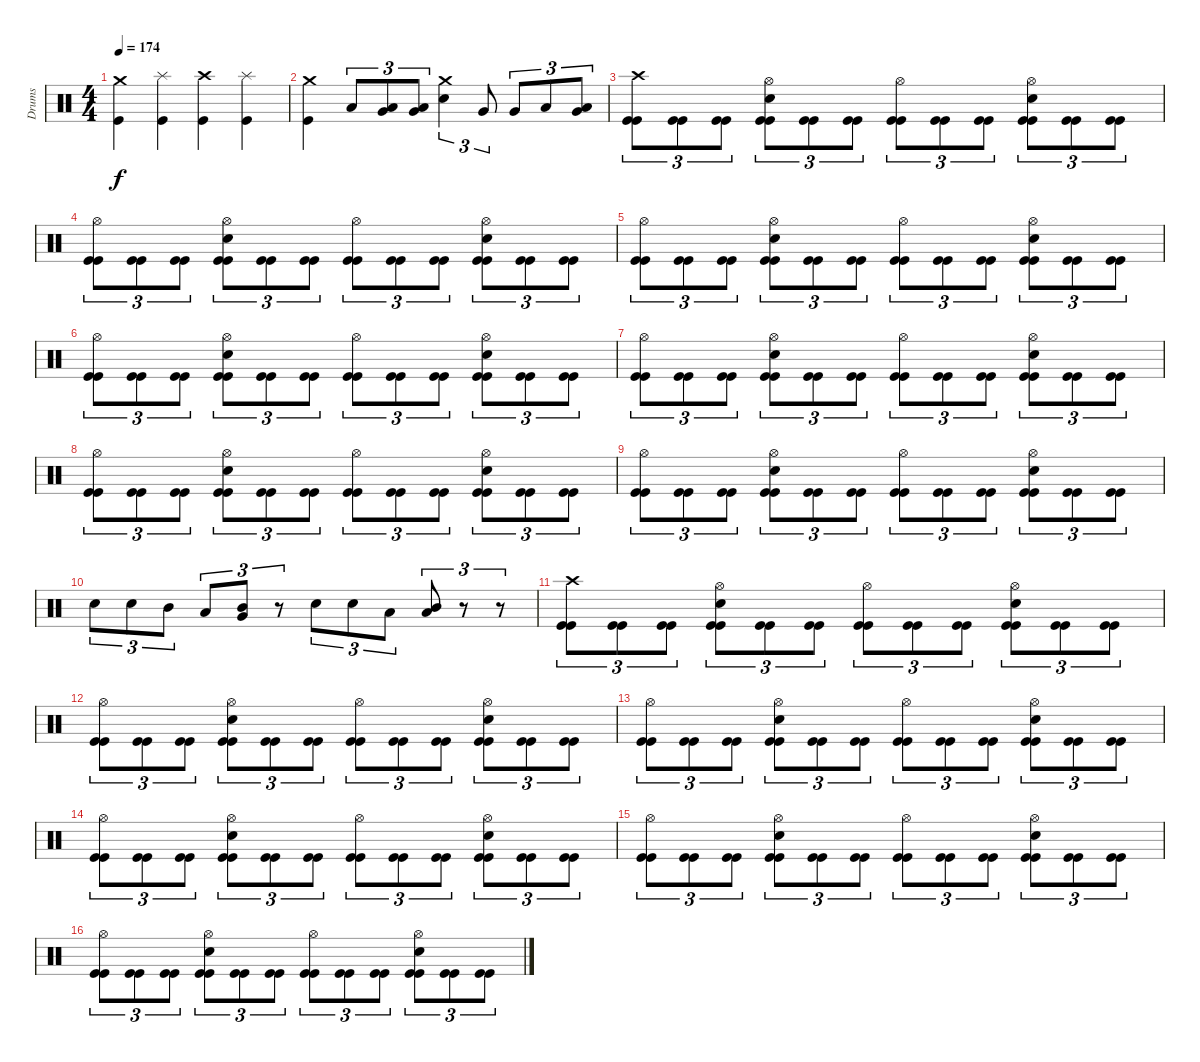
\track ("Drums" "Drums") {instrument percussion}
\staff {score}
\articulation defaults
\ts (4 4)
\tempo 174
\clef neutral
\ks c
("Kick (hit)" "Crash medium (hit)").4{dy f} ("Kick (hit)" "Splash (hit)").4 ("Kick (hit)" "Crash high (hit)").4 ("Kick (hit)" "Splash (hit)").4 |
("Kick (hit)" "Crash medium (hit)").4 "Low Tom (hit)".8{tu (3 2)} ("Very Low Tom (hit)" "Low Tom (hit)").8{tu (3 2)} ("Very Low Tom (hit)" "Low Tom (hit)").8{tu (3 2)} ("Electric Snare (hit)" "Crash medium (hit)").4{tu (3 2)} "Very Low Tom (hit)".8{tu (3 2)} "Very Low Tom (hit)".8{tu (3 2)} "Low Tom (hit)".8{tu (3 2)} ("Low Tom (hit)" "Very Low Tom (hit)").8{tu (3 2)} |
("Kick (hit)" "Kick (hit)" "Crash high (hit)").8{tu (3 2)} ("Kick (hit)" "Kick (hit)").8{tu (3 2)} ("Kick (hit)" "Kick (hit)").8{tu (3 2)} ("Kick (hit)" "Kick (hit)" "Snare (hit) 2" "Hi-Hat (open)").8{tu (3 2)} ("Kick (hit)" "Kick (hit)").8{tu (3 2)} ("Kick (hit)" "Kick (hit)").8{tu (3 2)} ("Kick (hit)" "Kick (hit)" "Hi-Hat (open)").8{tu (3 2)} ("Kick (hit)" "Kick (hit)").8{tu (3 2)} ("Kick (hit)" "Kick (hit)").8{tu (3 2)} ("Kick (hit)" "Kick (hit)" "Snare (hit) 2" "Hi-Hat (open)").8{tu (3 2)} ("Kick (hit)" "Kick (hit)").8{tu (3 2)} ("Kick (hit)" "Kick (hit)").8{tu (3 2)} |
("Kick (hit)" "Kick (hit)" "Hi-Hat (open)").8{tu (3 2)} ("Kick (hit)" "Kick (hit)").8{tu (3 2)} ("Kick (hit)" "Kick (hit)").8{tu (3 2)} ("Kick (hit)" "Kick (hit)" "Snare (hit) 2" "Hi-Hat (open)").8{tu (3 2)} ("Kick (hit)" "Kick (hit)").8{tu (3 2)} ("Kick (hit)" "Kick (hit)").8{tu (3 2)} ("Kick (hit)" "Kick (hit)" "Hi-Hat (open)").8{tu (3 2)} ("Kick (hit)" "Kick (hit)").8{tu (3 2)} ("Kick (hit)" "Kick (hit)").8{tu (3 2)} ("Kick (hit)" "Kick (hit)" "Snare (hit) 2" "Hi-Hat (open)").8{tu (3 2)} ("Kick (hit)" "Kick (hit)").8{tu (3 2)} ("Kick (hit)" "Kick (hit)").8{tu (3 2)} |
("Kick (hit)" "Kick (hit)" "Hi-Hat (open)").8{tu (3 2)} ("Kick (hit)" "Kick (hit)").8{tu (3 2)} ("Kick (hit)" "Kick (hit)").8{tu (3 2)} ("Kick (hit)" "Kick (hit)" "Snare (hit) 2" "Hi-Hat (open)").8{tu (3 2)} ("Kick (hit)" "Kick (hit)").8{tu (3 2)} ("Kick (hit)" "Kick (hit)").8{tu (3 2)} ("Kick (hit)" "Kick (hit)" "Hi-Hat (open)").8{tu (3 2)} ("Kick (hit)" "Kick (hit)").8{tu (3 2)} ("Kick (hit)" "Kick (hit)").8{tu (3 2)} ("Kick (hit)" "Kick (hit)" "Snare (hit) 2" "Hi-Hat (open)").8{tu (3 2)} ("Kick (hit)" "Kick (hit)").8{tu (3 2)} ("Kick (hit)" "Kick (hit)").8{tu (3 2)} |
("Kick (hit)" "Kick (hit)" "Hi-Hat (open)").8{tu (3 2)} ("Kick (hit)" "Kick (hit)").8{tu (3 2)} ("Kick (hit)" "Kick (hit)").8{tu (3 2)} ("Kick (hit)" "Kick (hit)" "Snare (hit) 2" "Hi-Hat (open)").8{tu (3 2)} ("Kick (hit)" "Kick (hit)").8{tu (3 2)} ("Kick (hit)" "Kick (hit)").8{tu (3 2)} ("Kick (hit)" "Kick (hit)" "Hi-Hat (open)").8{tu (3 2)} ("Kick (hit)" "Kick (hit)").8{tu (3 2)} ("Kick (hit)" "Kick (hit)").8{tu (3 2)} ("Kick (hit)" "Kick (hit)" "Snare (hit) 2" "Hi-Hat (open)").8{tu (3 2)} ("Kick (hit)" "Kick (hit)").8{tu (3 2)} ("Kick (hit)" "Kick (hit)").8{tu (3 2)} |
("Kick (hit)" "Kick (hit)" "Hi-Hat (open)").8{tu (3 2)} ("Kick (hit)" "Kick (hit)").8{tu (3 2)} ("Kick (hit)" "Kick (hit)").8{tu (3 2)} ("Kick (hit)" "Kick (hit)" "Snare (hit) 2" "Hi-Hat (open)").8{tu (3 2)} ("Kick (hit)" "Kick (hit)").8{tu (3 2)} ("Kick (hit)" "Kick (hit)").8{tu (3 2)} ("Kick (hit)" "Kick (hit)" "Hi-Hat (open)").8{tu (3 2)} ("Kick (hit)" "Kick (hit)").8{tu (3 2)} ("Kick (hit)" "Kick (hit)").8{tu (3 2)} ("Kick (hit)" "Kick (hit)" "Snare (hit) 2" "Hi-Hat (open)").8{tu (3 2)} ("Kick (hit)" "Kick (hit)").8{tu (3 2)} ("Kick (hit)" "Kick (hit)").8{tu (3 2)} |
("Kick (hit)" "Kick (hit)" "Hi-Hat (open)").8{tu (3 2)} ("Kick (hit)" "Kick (hit)").8{tu (3 2)} ("Kick (hit)" "Kick (hit)").8{tu (3 2)} ("Kick (hit)" "Kick (hit)" "Snare (hit) 2" "Hi-Hat (open)").8{tu (3 2)} ("Kick (hit)" "Kick (hit)").8{tu (3 2)} ("Kick (hit)" "Kick (hit)").8{tu (3 2)} ("Kick (hit)" "Kick (hit)" "Hi-Hat (open)").8{tu (3 2)} ("Kick (hit)" "Kick (hit)").8{tu (3 2)} ("Kick (hit)" "Kick (hit)").8{tu (3 2)} ("Kick (hit)" "Kick (hit)" "Snare (hit) 2" "Hi-Hat (open)").8{tu (3 2)} ("Kick (hit)" "Kick (hit)").8{tu (3 2)} ("Kick (hit)" "Kick (hit)").8{tu (3 2)} |
("Kick (hit)" "Kick (hit)" "Hi-Hat (open)").8{tu (3 2)} ("Kick (hit)" "Kick (hit)").8{tu (3 2)} ("Kick (hit)" "Kick (hit)").8{tu (3 2)} ("Kick (hit)" "Kick (hit)" "Snare (hit) 2" "Hi-Hat (open)").8{tu (3 2)} ("Kick (hit)" "Kick (hit)").8{tu (3 2)} ("Kick (hit)" "Kick (hit)").8{tu (3 2)} ("Kick (hit)" "Kick (hit)" "Hi-Hat (open)").8{tu (3 2)} ("Kick (hit)" "Kick (hit)").8{tu (3 2)} ("Kick (hit)" "Kick (hit)").8{tu (3 2)} ("Kick (hit)" "Kick (hit)" "Snare (hit) 2" "Hi-Hat (open)").8{tu (3 2)} ("Kick (hit)" "Kick (hit)").8{tu (3 2)} ("Kick (hit)" "Kick (hit)").8{tu (3 2)} |
"Snare (hit) 2".8{tu (3 2)} "Snare (hit) 2".8{tu (3 2)} "Mid Tom (hit)".8{tu (3 2)} "Low Tom (hit)".8{tu (3 2)} ("Very Low Tom (hit)" "Mid Tom (hit)").8{tu (3 2)} r.8{tu (3 2)} "Snare (hit) 2".8{tu (3 2)} "Snare (hit) 2".8{tu (3 2)} "Low Tom (hit)".8{tu (3 2)} ("Low Floor Tom (hit)" "Mid Tom (hit)").8{tu (3 2)} r.8{tu (3 2)} r.8{tu (3 2)} |
("Kick (hit)" "Kick (hit)" "Crash high (hit)").8{tu (3 2)} ("Kick (hit)" "Kick (hit)").8{tu (3 2)} ("Kick (hit)" "Kick (hit)").8{tu (3 2)} ("Kick (hit)" "Kick (hit)" "Snare (hit) 2" "Hi-Hat (open)").8{tu (3 2)} ("Kick (hit)" "Kick (hit)").8{tu (3 2)} ("Kick (hit)" "Kick (hit)").8{tu (3 2)} ("Kick (hit)" "Kick (hit)" "Hi-Hat (open)").8{tu (3 2)} ("Kick (hit)" "Kick (hit)").8{tu (3 2)} ("Kick (hit)" "Kick (hit)").8{tu (3 2)} ("Kick (hit)" "Kick (hit)" "Snare (hit) 2" "Hi-Hat (open)").8{tu (3 2)} ("Kick (hit)" "Kick (hit)").8{tu (3 2)} ("Kick (hit)" "Kick (hit)").8{tu (3 2)} |
("Kick (hit)" "Kick (hit)" "Hi-Hat (open)").8{tu (3 2)} ("Kick (hit)" "Kick (hit)").8{tu (3 2)} ("Kick (hit)" "Kick (hit)").8{tu (3 2)} ("Kick (hit)" "Kick (hit)" "Snare (hit) 2" "Hi-Hat (open)").8{tu (3 2)} ("Kick (hit)" "Kick (hit)").8{tu (3 2)} ("Kick (hit)" "Kick (hit)").8{tu (3 2)} ("Kick (hit)" "Kick (hit)" "Hi-Hat (open)").8{tu (3 2)} ("Kick (hit)" "Kick (hit)").8{tu (3 2)} ("Kick (hit)" "Kick (hit)").8{tu (3 2)} ("Kick (hit)" "Kick (hit)" "Snare (hit) 2" "Hi-Hat (open)").8{tu (3 2)} ("Kick (hit)" "Kick (hit)").8{tu (3 2)} ("Kick (hit)" "Kick (hit)").8{tu (3 2)} |
("Kick (hit)" "Kick (hit)" "Hi-Hat (open)").8{tu (3 2)} ("Kick (hit)" "Kick (hit)").8{tu (3 2)} ("Kick (hit)" "Kick (hit)").8{tu (3 2)} ("Kick (hit)" "Kick (hit)" "Snare (hit) 2" "Hi-Hat (open)").8{tu (3 2)} ("Kick (hit)" "Kick (hit)").8{tu (3 2)} ("Kick (hit)" "Kick (hit)").8{tu (3 2)} ("Kick (hit)" "Kick (hit)" "Hi-Hat (open)").8{tu (3 2)} ("Kick (hit)" "Kick (hit)").8{tu (3 2)} ("Kick (hit)" "Kick (hit)").8{tu (3 2)} ("Kick (hit)" "Kick (hit)" "Snare (hit) 2" "Hi-Hat (open)").8{tu (3 2)} ("Kick (hit)" "Kick (hit)").8{tu (3 2)} ("Kick (hit)" "Kick (hit)").8{tu (3 2)} |
("Kick (hit)" "Kick (hit)" "Hi-Hat (open)").8{tu (3 2)} ("Kick (hit)" "Kick (hit)").8{tu (3 2)} ("Kick (hit)" "Kick (hit)").8{tu (3 2)} ("Kick (hit)" "Kick (hit)" "Snare (hit) 2" "Hi-Hat (open)").8{tu (3 2)} ("Kick (hit)" "Kick (hit)").8{tu (3 2)} ("Kick (hit)" "Kick (hit)").8{tu (3 2)} ("Kick (hit)" "Kick (hit)" "Hi-Hat (open)").8{tu (3 2)} ("Kick (hit)" "Kick (hit)").8{tu (3 2)} ("Kick (hit)" "Kick (hit)").8{tu (3 2)} ("Kick (hit)" "Kick (hit)" "Snare (hit) 2" "Hi-Hat (open)").8{tu (3 2)} ("Kick (hit)" "Kick (hit)").8{tu (3 2)} ("Kick (hit)" "Kick (hit)").8{tu (3 2)} |
("Kick (hit)" "Kick (hit)" "Hi-Hat (open)").8{tu (3 2)} ("Kick (hit)" "Kick (hit)").8{tu (3 2)} ("Kick (hit)" "Kick (hit)").8{tu (3 2)} ("Kick (hit)" "Kick (hit)" "Snare (hit) 2" "Hi-Hat (open)").8{tu (3 2)} ("Kick (hit)" "Kick (hit)").8{tu (3 2)} ("Kick (hit)" "Kick (hit)").8{tu (3 2)} ("Kick (hit)" "Kick (hit)" "Hi-Hat (open)").8{tu (3 2)} ("Kick (hit)" "Kick (hit)").8{tu (3 2)} ("Kick (hit)" "Kick (hit)").8{tu (3 2)} ("Kick (hit)" "Kick (hit)" "Snare (hit) 2" "Hi-Hat (open)").8{tu (3 2)} ("Kick (hit)" "Kick (hit)").8{tu (3 2)} ("Kick (hit)" "Kick (hit)").8{tu (3 2)} |
("Kick (hit)" "Kick (hit)" "Hi-Hat (open)").8{tu (3 2)} ("Kick (hit)" "Kick (hit)").8{tu (3 2)} ("Kick (hit)" "Kick (hit)").8{tu (3 2)} ("Kick (hit)" "Kick (hit)" "Snare (hit) 2" "Hi-Hat (open)").8{tu (3 2)} ("Kick (hit)" "Kick (hit)").8{tu (3 2)} ("Kick (hit)" "Kick (hit)").8{tu (3 2)} ("Kick (hit)" "Kick (hit)" "Hi-Hat (open)").8{tu (3 2)} ("Kick (hit)" "Kick (hit)").8{tu (3 2)} ("Kick (hit)" "Kick (hit)").8{tu (3 2)} ("Kick (hit)" "Kick (hit)" "Snare (hit) 2" "Hi-Hat (open)").8{tu (3 2)} ("Kick (hit)" "Kick (hit)").8{tu (3 2)} ("Kick (hit)" "Kick (hit)").8{tu (3 2)}
